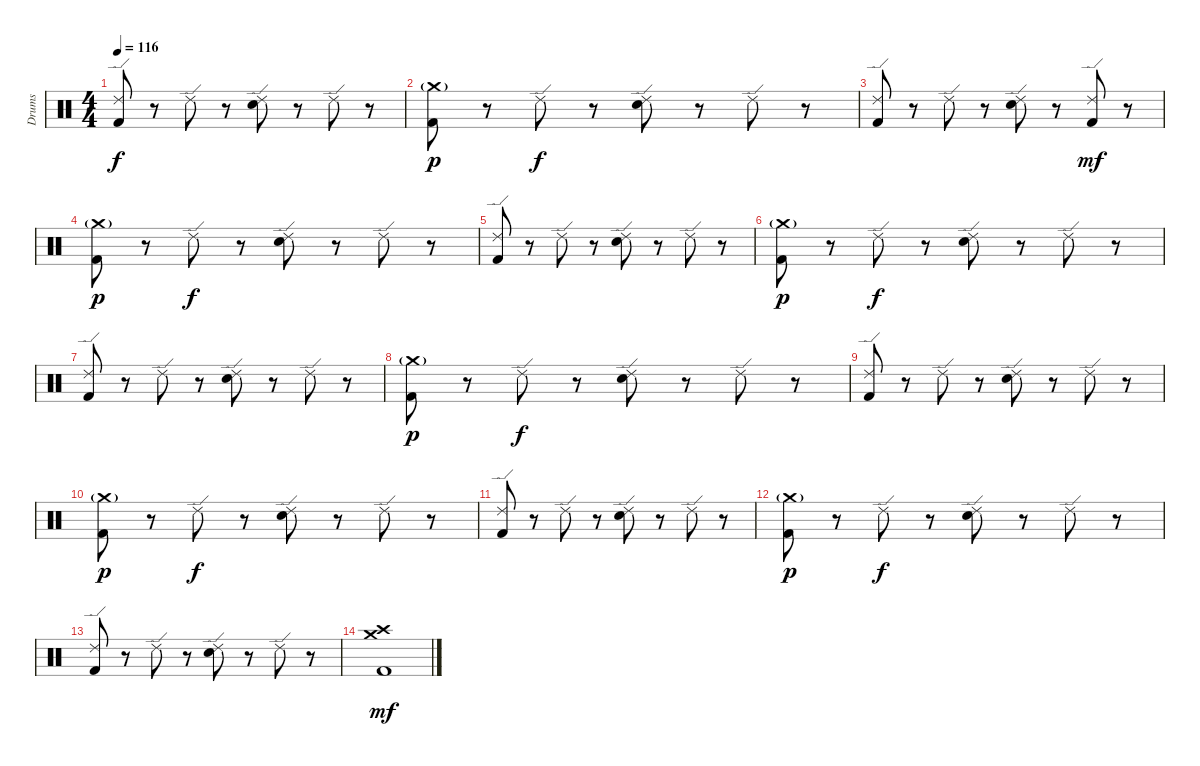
\track ("Drums" "Drums") {instrument percussion}
\staff {score}
\articulation defaults
\ts (4 4)
\tempo 116
\clef neutral
\ks c
("Ride (edge) 2" "Kick (hit) 2").8{dy f} r.8 "Ride (edge) 2".8 r.8 ("Ride (edge) 2" "Snare (hit) 2").8 r.8 "Ride (edge) 2".8 r.8 |
("Crash medium (hit)"{g} "Kick (hit) 2").8{dy p} r.8 "Ride (edge) 2".8{dy f} r.8 ("Ride (edge) 2" "Snare (hit) 2").8 r.8 "Ride (edge) 2".8 r.8 |
("Ride (edge) 2" "Kick (hit) 2").8 r.8 "Ride (edge) 2".8 r.8 ("Ride (edge) 2" "Snare (hit) 2").8 r.8 ("Ride (edge) 2" "Kick (hit) 2").8{dy mf} r.8 |
("Crash medium (hit)"{g} "Kick (hit) 2").8{dy p} r.8 "Ride (edge) 2".8{dy f} r.8 ("Ride (edge) 2" "Snare (hit) 2").8 r.8 "Ride (edge) 2".8 r.8 |
("Ride (edge) 2" "Kick (hit) 2").8 r.8 "Ride (edge) 2".8 r.8 ("Ride (edge) 2" "Snare (hit) 2").8 r.8 "Ride (edge) 2".8 r.8 |
("Crash medium (hit)"{g} "Kick (hit) 2").8{dy p} r.8 "Ride (edge) 2".8{dy f} r.8 ("Ride (edge) 2" "Snare (hit) 2").8 r.8 "Ride (edge) 2".8 r.8 |
("Ride (edge) 2" "Kick (hit) 2").8 r.8 "Ride (edge) 2".8 r.8 ("Ride (edge) 2" "Snare (hit) 2").8 r.8 "Ride (edge) 2".8 r.8 |
("Crash medium (hit)"{g} "Kick (hit) 2").8{dy p} r.8 "Ride (edge) 2".8{dy f} r.8 ("Ride (edge) 2" "Snare (hit) 2").8 r.8 "Ride (edge) 2".8 r.8 |
("Ride (edge) 2" "Kick (hit) 2").8 r.8 "Ride (edge) 2".8 r.8 ("Ride (edge) 2" "Snare (hit) 2").8 r.8 "Ride (edge) 2".8 r.8 |
("Crash medium (hit)"{g} "Kick (hit) 2").8{dy p} r.8 "Ride (edge) 2".8{dy f} r.8 ("Ride (edge) 2" "Snare (hit) 2").8 r.8 "Ride (edge) 2".8 r.8 |
("Ride (edge) 2" "Kick (hit) 2").8 r.8 "Ride (edge) 2".8 r.8 ("Ride (edge) 2" "Snare (hit) 2").8 r.8 "Ride (edge) 2".8 r.8 |
("Crash medium (hit)"{g} "Kick (hit) 2").8{dy p} r.8 "Ride (edge) 2".8{dy f} r.8 ("Ride (edge) 2" "Snare (hit) 2").8 r.8 "Ride (edge) 2".8 r.8 |
("Ride (edge) 2" "Kick (hit) 2").8 r.8 "Ride (edge) 2".8 r.8 ("Ride (edge) 2" "Snare (hit) 2").8 r.8 "Ride (edge) 2".8 r.8 |
("Crash medium (hit)" "Crash high (hit)" "Kick (hit) 2").1{dy mf}
